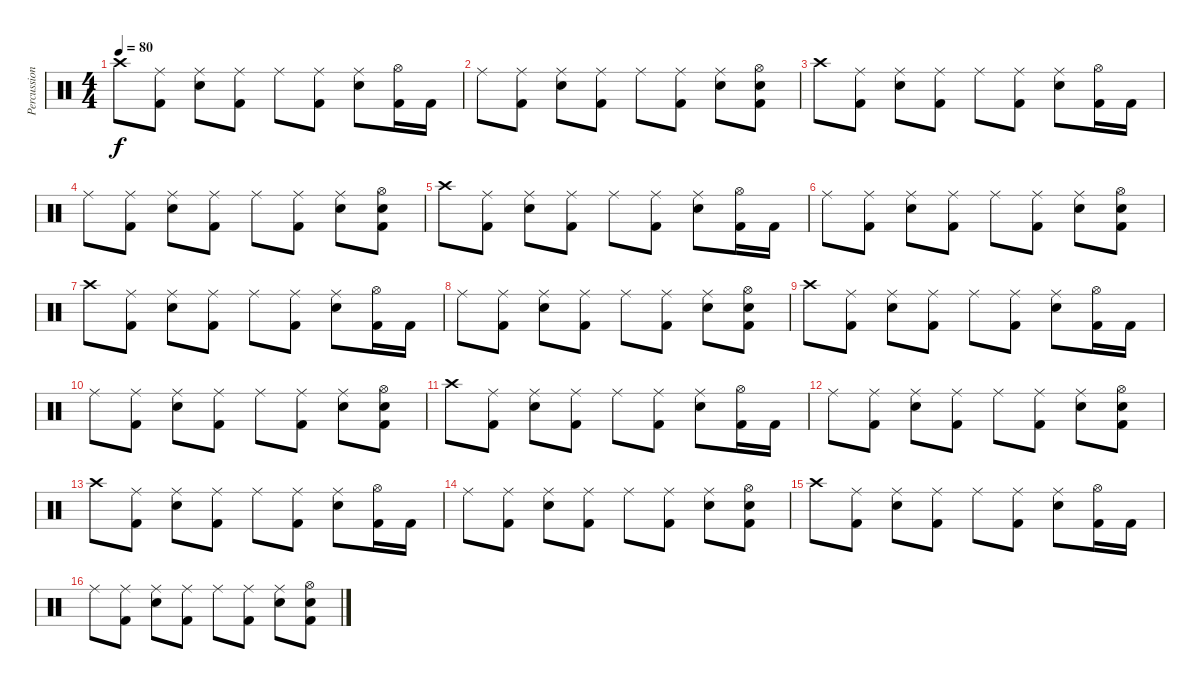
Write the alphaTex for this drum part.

\track ("Percussion" "Percussion") {instrument percussion}
\staff {score}
\articulation defaults
\ts (4 4)
\tempo 80
\clef neutral
\ks c "Crash high (hit)".8{dy f}
("Ride (middle)" "Kick (hit) 2").8 ("Ride (middle)" "Electric Snare (hit)").8 ("Ride (middle)" "Kick (hit) 2").8 "Ride (middle)".8 ("Ride (middle)" "Kick (hit) 2").8 ("Ride (middle)" "Electric Snare (hit)").8 ("Hi-Hat (open)" "Kick (hit) 2").16 "Kick (hit) 2".16 |
"Ride (middle)".8 ("Ride (middle)" "Kick (hit) 2").8 ("Ride (middle)" "Electric Snare (hit)").8 ("Ride (middle)" "Kick (hit) 2").8 "Ride (middle)".8 ("Ride (middle)" "Kick (hit) 2").8 ("Ride (middle)" "Electric Snare (hit)").8 ("Hi-Hat (open)" "Electric Snare (hit)" "Kick (hit) 2").8 |
"Crash high (hit)".8 ("Ride (middle)" "Kick (hit) 2").8 ("Ride (middle)" "Electric Snare (hit)").8 ("Ride (middle)" "Kick (hit) 2").8 "Ride (middle)".8 ("Ride (middle)" "Kick (hit) 2").8 ("Ride (middle)" "Electric Snare (hit)").8 ("Hi-Hat (open)" "Kick (hit) 2").16 "Kick (hit) 2".16 |
"Ride (middle)".8 ("Ride (middle)" "Kick (hit) 2").8 ("Ride (middle)" "Electric Snare (hit)").8 ("Ride (middle)" "Kick (hit) 2").8 "Ride (middle)".8 ("Ride (middle)" "Kick (hit) 2").8 ("Ride (middle)" "Electric Snare (hit)").8 ("Hi-Hat (open)" "Electric Snare (hit)" "Kick (hit) 2").8 |
"Crash high (hit)".8 ("Ride (middle)" "Kick (hit) 2").8 ("Ride (middle)" "Electric Snare (hit)").8 ("Ride (middle)" "Kick (hit) 2").8 "Ride (middle)".8 ("Ride (middle)" "Kick (hit) 2").8 ("Ride (middle)" "Electric Snare (hit)").8 ("Hi-Hat (open)" "Kick (hit) 2").16 "Kick (hit) 2".16 |
"Ride (middle)".8 ("Ride (middle)" "Kick (hit) 2").8 ("Ride (middle)" "Electric Snare (hit)").8 ("Ride (middle)" "Kick (hit) 2").8 "Ride (middle)".8 ("Ride (middle)" "Kick (hit) 2").8 ("Ride (middle)" "Electric Snare (hit)").8 ("Hi-Hat (open)" "Electric Snare (hit)" "Kick (hit) 2").8 |
"Crash high (hit)".8 ("Ride (middle)" "Kick (hit) 2").8 ("Ride (middle)" "Electric Snare (hit)").8 ("Ride (middle)" "Kick (hit) 2").8 "Ride (middle)".8 ("Ride (middle)" "Kick (hit) 2").8 ("Ride (middle)" "Electric Snare (hit)").8 ("Hi-Hat (open)" "Kick (hit) 2").16 "Kick (hit) 2".16 |
"Ride (middle)".8 ("Ride (middle)" "Kick (hit) 2").8 ("Ride (middle)" "Electric Snare (hit)").8 ("Ride (middle)" "Kick (hit) 2").8 "Ride (middle)".8 ("Ride (middle)" "Kick (hit) 2").8 ("Ride (middle)" "Electric Snare (hit)").8 ("Hi-Hat (open)" "Electric Snare (hit)" "Kick (hit) 2").8 |
"Crash high (hit)".8 ("Ride (middle)" "Kick (hit) 2").8 ("Ride (middle)" "Electric Snare (hit)").8 ("Ride (middle)" "Kick (hit) 2").8 "Ride (middle)".8 ("Ride (middle)" "Kick (hit) 2").8 ("Ride (middle)" "Electric Snare (hit)").8 ("Hi-Hat (open)" "Kick (hit) 2").16 "Kick (hit) 2".16 |
"Ride (middle)".8 ("Ride (middle)" "Kick (hit) 2").8 ("Ride (middle)" "Electric Snare (hit)").8 ("Ride (middle)" "Kick (hit) 2").8 "Ride (middle)".8 ("Ride (middle)" "Kick (hit) 2").8 ("Ride (middle)" "Electric Snare (hit)").8 ("Hi-Hat (open)" "Electric Snare (hit)" "Kick (hit) 2").8 |
"Crash high (hit)".8 ("Ride (middle)" "Kick (hit) 2").8 ("Ride (middle)" "Electric Snare (hit)").8 ("Ride (middle)" "Kick (hit) 2").8 "Ride (middle)".8 ("Ride (middle)" "Kick (hit) 2").8 ("Ride (middle)" "Electric Snare (hit)").8 ("Hi-Hat (open)" "Kick (hit) 2").16 "Kick (hit) 2".16 |
"Ride (middle)".8 ("Ride (middle)" "Kick (hit) 2").8 ("Ride (middle)" "Electric Snare (hit)").8 ("Ride (middle)" "Kick (hit) 2").8 "Ride (middle)".8 ("Ride (middle)" "Kick (hit) 2").8 ("Ride (middle)" "Electric Snare (hit)").8 ("Hi-Hat (open)" "Electric Snare (hit)" "Kick (hit) 2").8 |
"Crash high (hit)".8 ("Ride (middle)" "Kick (hit) 2").8 ("Ride (middle)" "Electric Snare (hit)").8 ("Ride (middle)" "Kick (hit) 2").8 "Ride (middle)".8 ("Ride (middle)" "Kick (hit) 2").8 ("Ride (middle)" "Electric Snare (hit)").8 ("Hi-Hat (open)" "Kick (hit) 2").16 "Kick (hit) 2".16 |
"Ride (middle)".8 ("Ride (middle)" "Kick (hit) 2").8 ("Ride (middle)" "Electric Snare (hit)").8 ("Ride (middle)" "Kick (hit) 2").8 "Ride (middle)".8 ("Ride (middle)" "Kick (hit) 2").8 ("Ride (middle)" "Electric Snare (hit)").8 ("Hi-Hat (open)" "Electric Snare (hit)" "Kick (hit) 2").8 |
"Crash high (hit)".8 ("Ride (middle)" "Kick (hit) 2").8 ("Ride (middle)" "Electric Snare (hit)").8 ("Ride (middle)" "Kick (hit) 2").8 "Ride (middle)".8 ("Ride (middle)" "Kick (hit) 2").8 ("Ride (middle)" "Electric Snare (hit)").8 ("Hi-Hat (open)" "Kick (hit) 2").16 "Kick (hit) 2".16 |
"Ride (middle)".8 ("Ride (middle)" "Kick (hit) 2").8 ("Ride (middle)" "Electric Snare (hit)").8 ("Ride (middle)" "Kick (hit) 2").8 "Ride (middle)".8 ("Ride (middle)" "Kick (hit) 2").8 ("Ride (middle)" "Electric Snare (hit)").8 ("Hi-Hat (open)" "Electric Snare (hit)" "Kick (hit) 2").8
